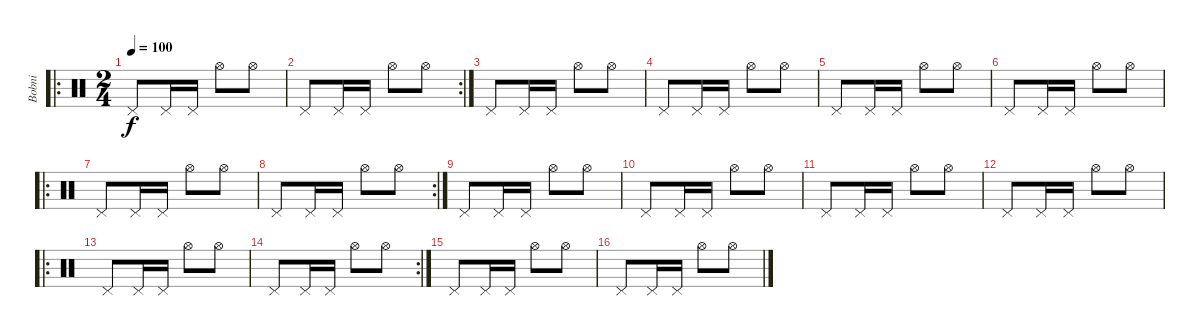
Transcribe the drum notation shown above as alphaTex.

\track ("Bobni" "Bobni") {instrument percussion}
\staff {score}
\articulation defaults
\ro
\ts (2 4)
\tempo 100
\clef neutral
\ks c "Pedal Hi-Hat (hit)".8{dy f} "Pedal Hi-Hat (hit)".16 "Pedal Hi-Hat (hit)".16 "Hi-Hat (open)".8 "Hi-Hat (open)".8
|
\rc 2 "Pedal Hi-Hat (hit)".8 "Pedal Hi-Hat (hit)".16 "Pedal Hi-Hat (hit)".16 "Hi-Hat (open)".8 "Hi-Hat (open)".8
|
"Pedal Hi-Hat (hit)".8 "Pedal Hi-Hat (hit)".16 "Pedal Hi-Hat (hit)".16 "Hi-Hat (open)".8 "Hi-Hat (open)".8 |
"Pedal Hi-Hat (hit)".8 "Pedal Hi-Hat (hit)".16 "Pedal Hi-Hat (hit)".16 "Hi-Hat (open)".8 "Hi-Hat (open)".8 |
"Pedal Hi-Hat (hit)".8 "Pedal Hi-Hat (hit)".16 "Pedal Hi-Hat (hit)".16 "Hi-Hat (open)".8 "Hi-Hat (open)".8 |
"Pedal Hi-Hat (hit)".8 "Pedal Hi-Hat (hit)".16 "Pedal Hi-Hat (hit)".16 "Hi-Hat (open)".8 "Hi-Hat (open)".8 |
\ro "Pedal Hi-Hat (hit)".8 "Pedal Hi-Hat (hit)".16 "Pedal Hi-Hat (hit)".16 "Hi-Hat (open)".8 "Hi-Hat (open)".8
|
\rc 2 "Pedal Hi-Hat (hit)".8 "Pedal Hi-Hat (hit)".16 "Pedal Hi-Hat (hit)".16 "Hi-Hat (open)".8 "Hi-Hat (open)".8
|
"Pedal Hi-Hat (hit)".8 "Pedal Hi-Hat (hit)".16 "Pedal Hi-Hat (hit)".16 "Hi-Hat (open)".8 "Hi-Hat (open)".8 |
"Pedal Hi-Hat (hit)".8 "Pedal Hi-Hat (hit)".16 "Pedal Hi-Hat (hit)".16 "Hi-Hat (open)".8 "Hi-Hat (open)".8 |
"Pedal Hi-Hat (hit)".8 "Pedal Hi-Hat (hit)".16 "Pedal Hi-Hat (hit)".16 "Hi-Hat (open)".8 "Hi-Hat (open)".8 |
"Pedal Hi-Hat (hit)".8 "Pedal Hi-Hat (hit)".16 "Pedal Hi-Hat (hit)".16 "Hi-Hat (open)".8 "Hi-Hat (open)".8 |
\ro "Pedal Hi-Hat (hit)".8 "Pedal Hi-Hat (hit)".16 "Pedal Hi-Hat (hit)".16 "Hi-Hat (open)".8 "Hi-Hat (open)".8
|
\rc 2 "Pedal Hi-Hat (hit)".8 "Pedal Hi-Hat (hit)".16 "Pedal Hi-Hat (hit)".16 "Hi-Hat (open)".8 "Hi-Hat (open)".8
|
"Pedal Hi-Hat (hit)".8 "Pedal Hi-Hat (hit)".16 "Pedal Hi-Hat (hit)".16 "Hi-Hat (open)".8 "Hi-Hat (open)".8 |
"Pedal Hi-Hat (hit)".8 "Pedal Hi-Hat (hit)".16 "Pedal Hi-Hat (hit)".16 "Hi-Hat (open)".8 "Hi-Hat (open)".8
